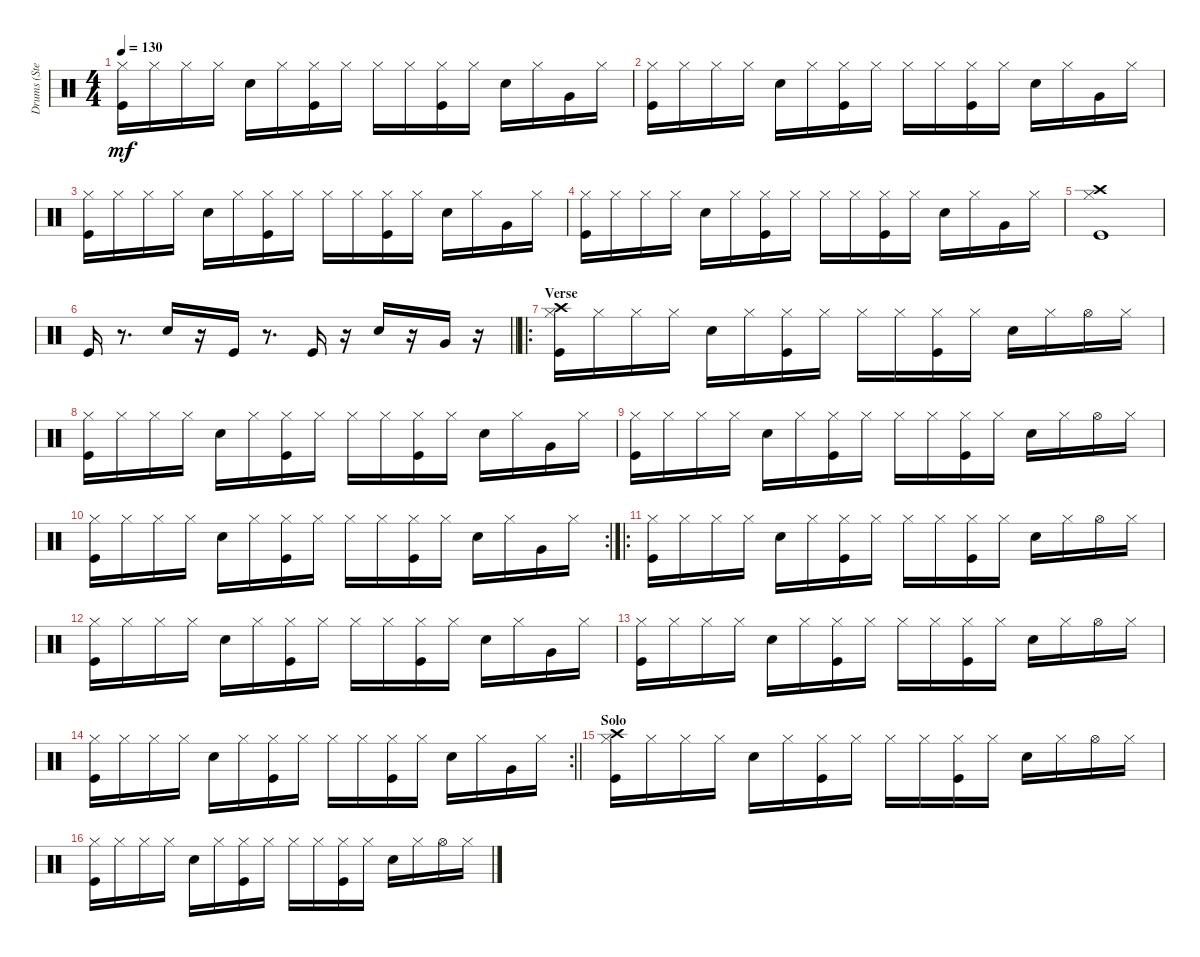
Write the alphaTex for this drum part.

\track ("Drums (Stephen Morris)" "Drums (Ste") {instrument percussion}
\staff {score}
\articulation defaults
\ts (4 4)
\tempo 130
\clef neutral
\ks c
("Hi-Hat (closed)" "Kick (hit)").16{dy mf} "Hi-Hat (closed)".16 "Hi-Hat (closed)".16 "Hi-Hat (closed)".16 "Snare (hit) 2".16 "Hi-Hat (closed)".16 ("Kick (hit)" "Hi-Hat (closed)").16 "Hi-Hat (closed)".16 "Hi-Hat (closed)".16 "Hi-Hat (closed)".16 ("Kick (hit)" "Hi-Hat (closed)").16 "Hi-Hat (closed)".16 "Snare (hit) 2".16 "Hi-Hat (closed)".16 "Very Low Tom (hit)".16 "Hi-Hat (closed)".16 |
("Hi-Hat (closed)" "Kick (hit)").16 "Hi-Hat (closed)".16 "Hi-Hat (closed)".16 "Hi-Hat (closed)".16 "Snare (hit) 2".16 "Hi-Hat (closed)".16 ("Kick (hit)" "Hi-Hat (closed)").16 "Hi-Hat (closed)".16 "Hi-Hat (closed)".16 "Hi-Hat (closed)".16 ("Kick (hit)" "Hi-Hat (closed)").16 "Hi-Hat (closed)".16 "Snare (hit) 2".16 "Hi-Hat (closed)".16 "Very Low Tom (hit)".16 "Hi-Hat (closed)".16 |
("Hi-Hat (closed)" "Kick (hit)").16 "Hi-Hat (closed)".16 "Hi-Hat (closed)".16 "Hi-Hat (closed)".16 "Snare (hit) 2".16 "Hi-Hat (closed)".16 ("Kick (hit)" "Hi-Hat (closed)").16 "Hi-Hat (closed)".16 "Hi-Hat (closed)".16 "Hi-Hat (closed)".16 ("Kick (hit)" "Hi-Hat (closed)").16 "Hi-Hat (closed)".16 "Snare (hit) 2".16 "Hi-Hat (closed)".16 "Very Low Tom (hit)".16 "Hi-Hat (closed)".16 |
("Hi-Hat (closed)" "Kick (hit)").16 "Hi-Hat (closed)".16 "Hi-Hat (closed)".16 "Hi-Hat (closed)".16 "Snare (hit) 2".16 "Hi-Hat (closed)".16 ("Kick (hit)" "Hi-Hat (closed)").16 "Hi-Hat (closed)".16 "Hi-Hat (closed)".16 "Hi-Hat (closed)".16 ("Kick (hit)" "Hi-Hat (closed)").16 "Hi-Hat (closed)".16 "Snare (hit) 2".16 "Hi-Hat (closed)".16 "Very Low Tom (hit)".16 "Hi-Hat (closed)".16 |
("Crash high (hit)" "Hi-Hat (closed)" "Kick (hit)").1 |
\barLineRight lightlight "Kick (hit)".16
r.8{d} "Hand Clap (hit)".16 r.16 "Kick (hit)".16 r.8{d} "Kick (hit)".16 r.16 "Hand Clap (hit)".16 r.16 "Very Low Tom (hit)".16 r.16 |
\ro
\section ("" "Verse")
("Hi-Hat (closed)" "Crash high (hit)" "Kick (hit)").16 "Hi-Hat (closed)".16 "Hi-Hat (closed)".16 "Hi-Hat (closed)".16 "Snare (hit) 2".16 "Hi-Hat (closed)".16 ("Kick (hit)" "Hi-Hat (closed)").16 "Hi-Hat (closed)".16 "Hi-Hat (closed)".16 "Hi-Hat (closed)".16 ("Kick (hit)" "Hi-Hat (closed)").16 "Hi-Hat (closed)".16 "Snare (hit) 2".16 "Hi-Hat (closed)".16 "Hi-Hat (open)".16 "Hi-Hat (closed)".16 |
("Hi-Hat (closed)" "Kick (hit)").16 "Hi-Hat (closed)".16 "Hi-Hat (closed)".16 "Hi-Hat (closed)".16 "Snare (hit) 2".16 "Hi-Hat (closed)".16 ("Hi-Hat (closed)" "Kick (hit)").16 "Hi-Hat (closed)".16 "Hi-Hat (closed)".16 "Hi-Hat (closed)".16 ("Hi-Hat (closed)" "Kick (hit)").16 "Hi-Hat (closed)".16 "Snare (hit) 2".16 "Hi-Hat (closed)".16 "Very Low Tom (hit)".16 "Hi-Hat (closed)".16 |
("Kick (hit)" "Hi-Hat (closed)").16 "Hi-Hat (closed)".16 "Hi-Hat (closed)".16 "Hi-Hat (closed)".16 "Snare (hit) 2".16 "Hi-Hat (closed)".16 ("Hi-Hat (closed)" "Kick (hit)").16 "Hi-Hat (closed)".16 "Hi-Hat (closed)".16 "Hi-Hat (closed)".16 ("Hi-Hat (closed)" "Kick (hit)").16 "Hi-Hat (closed)".16 "Snare (hit) 2".16 "Hi-Hat (closed)".16 "Hi-Hat (open)".16 "Hi-Hat (closed)".16 |
\rc 2
("Hi-Hat (closed)" "Kick (hit)").16 "Hi-Hat (closed)".16 "Hi-Hat (closed)".16 "Hi-Hat (closed)".16 "Snare (hit) 2".16 "Hi-Hat (closed)".16 ("Hi-Hat (closed)" "Kick (hit)").16 "Hi-Hat (closed)".16 "Hi-Hat (closed)".16 "Hi-Hat (closed)".16 ("Kick (hit)" "Hi-Hat (closed)").16 "Hi-Hat (closed)".16 "Snare (hit) 2".16 "Hi-Hat (closed)".16 "Very Low Tom (hit)".16 "Hi-Hat (closed)".16 |
\ro
("Hi-Hat (closed)" "Kick (hit)").16 "Hi-Hat (closed)".16 "Hi-Hat (closed)".16 "Hi-Hat (closed)".16 "Snare (hit) 2".16 "Hi-Hat (closed)".16 ("Kick (hit)" "Hi-Hat (closed)").16 "Hi-Hat (closed)".16 "Hi-Hat (closed)".16 "Hi-Hat (closed)".16 ("Kick (hit)" "Hi-Hat (closed)").16 "Hi-Hat (closed)".16 "Snare (hit) 2".16 "Hi-Hat (closed)".16 "Hi-Hat (open)".16 "Hi-Hat (closed)".16 |
("Hi-Hat (closed)" "Kick (hit)").16 "Hi-Hat (closed)".16 "Hi-Hat (closed)".16 "Hi-Hat (closed)".16 "Snare (hit) 2".16 "Hi-Hat (closed)".16 ("Kick (hit)" "Hi-Hat (closed)").16 "Hi-Hat (closed)".16 "Hi-Hat (closed)".16 "Hi-Hat (closed)".16 ("Kick (hit)" "Hi-Hat (closed)").16 "Hi-Hat (closed)".16 "Snare (hit) 2".16 "Hi-Hat (closed)".16 "Very Low Tom (hit)".16 "Hi-Hat (closed)".16 |
("Hi-Hat (closed)" "Kick (hit)").16 "Hi-Hat (closed)".16 "Hi-Hat (closed)".16 "Hi-Hat (closed)".16 "Snare (hit) 2".16 "Hi-Hat (closed)".16 ("Hi-Hat (closed)" "Kick (hit)").16 "Hi-Hat (closed)".16 "Hi-Hat (closed)".16 "Hi-Hat (closed)".16 ("Kick (hit)" "Hi-Hat (closed)").16 "Hi-Hat (closed)".16 "Snare (hit) 2".16 "Hi-Hat (closed)".16 "Hi-Hat (open)".16 "Hi-Hat (closed)".16 |
\rc 2
\barLineRight lightlight
("Kick (hit)" "Hi-Hat (closed)").16 "Hi-Hat (closed)".16 "Hi-Hat (closed)".16 "Hi-Hat (closed)".16 "Snare (hit) 2".16 "Hi-Hat (closed)".16 ("Hi-Hat (closed)" "Kick (hit)").16 "Hi-Hat (closed)".16 "Hi-Hat (closed)".16 "Hi-Hat (closed)".16 ("Hi-Hat (closed)" "Kick (hit)").16 "Hi-Hat (closed)".16 "Snare (hit) 2".16 "Hi-Hat (closed)".16 "Very Low Tom (hit)".16 "Hi-Hat (closed)".16 |
\section ("" "Solo")
("Hi-Hat (closed)" "Crash high (hit)" "Kick (hit)").16 "Hi-Hat (closed)".16 "Hi-Hat (closed)".16 "Hi-Hat (closed)".16 "Snare (hit) 2".16 "Hi-Hat (closed)".16 ("Kick (hit)" "Hi-Hat (closed)").16 "Hi-Hat (closed)".16 "Hi-Hat (closed)".16 "Hi-Hat (closed)".16 ("Kick (hit)" "Hi-Hat (closed)").16 "Hi-Hat (closed)".16 "Snare (hit) 2".16 "Hi-Hat (closed)".16 "Hi-Hat (open)".16 "Hi-Hat (closed)".16 |
("Hi-Hat (closed)" "Kick (hit)").16 "Hi-Hat (closed)".16 "Hi-Hat (closed)".16 "Hi-Hat (closed)".16 "Snare (hit) 2".16 "Hi-Hat (closed)".16 ("Kick (hit)" "Hi-Hat (closed)").16 "Hi-Hat (closed)".16 "Hi-Hat (closed)".16 "Hi-Hat (closed)".16 ("Kick (hit)" "Hi-Hat (closed)").16 "Hi-Hat (closed)".16 "Snare (hit) 2".16 "Hi-Hat (closed)".16 "Hi-Hat (open)".16 "Hi-Hat (closed)".16
